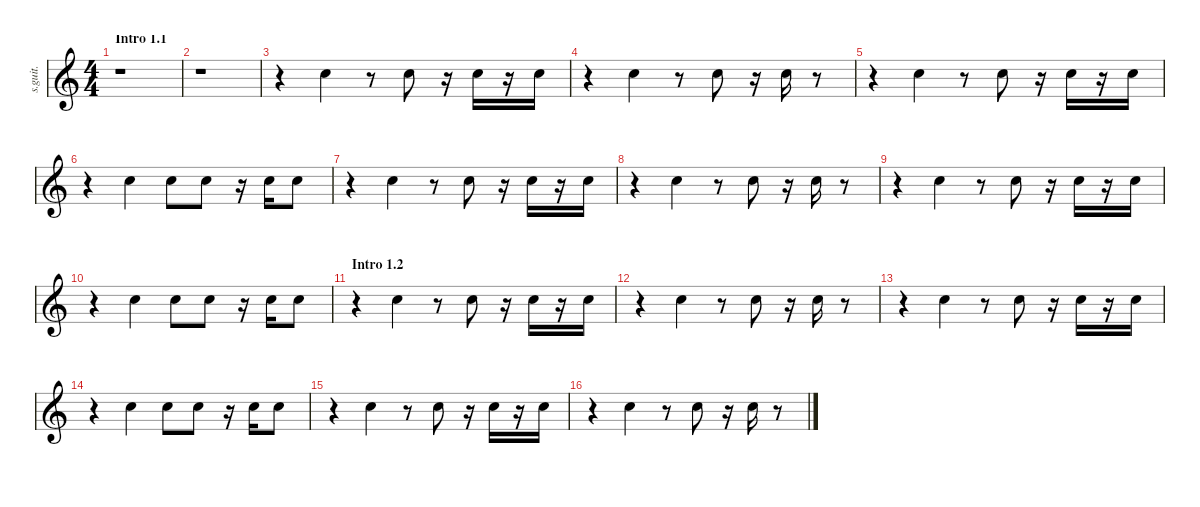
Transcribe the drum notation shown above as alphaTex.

\defaultSystemsLayout 4
\hideDynamics
\bracketExtendMode nobrackets
\track ("Hand Clap" "s.guit.") {instrument percussion}
\staff {score}
\articulation defaults
\ts (4 4)
\beaming (8 2 2 2 2)
\section ("" "Intro 1.1")
\tempo (192 hide)
\clef g2
\ks c
r.1{dy mf} |
r.1 |
r.4 "Hand Clap (hit)".4{lyrics (0 "") lyrics (1 "") lyrics (2 "") lyrics (3 "") lyrics (4 "")} r.8 "Hand Clap (hit)".8{lyrics (0 "") lyrics (1 "") lyrics (2 "") lyrics (3 "") lyrics (4 "")} r.16 "Hand Clap (hit)".16{lyrics (0 "") lyrics (1 "") lyrics (2 "") lyrics (3 "") lyrics (4 "")} r.16 "Hand Clap (hit)".16{lyrics (0 "") lyrics (1 "") lyrics (2 "") lyrics (3 "") lyrics (4 "")} |
r.4 "Hand Clap (hit)".4{lyrics (0 "") lyrics (1 "") lyrics (2 "") lyrics (3 "") lyrics (4 "")} r.8 "Hand Clap (hit)".8{lyrics (0 "") lyrics (1 "") lyrics (2 "") lyrics (3 "") lyrics (4 "")} r.16 "Hand Clap (hit)".16{lyrics (0 "") lyrics (1 "") lyrics (2 "") lyrics (3 "") lyrics (4 "")} r.8 |
r.4 "Hand Clap (hit)".4{lyrics (0 "") lyrics (1 "") lyrics (2 "") lyrics (3 "") lyrics (4 "")} r.8 "Hand Clap (hit)".8{lyrics (0 "") lyrics (1 "") lyrics (2 "") lyrics (3 "") lyrics (4 "")} r.16 "Hand Clap (hit)".16{lyrics (0 "") lyrics (1 "") lyrics (2 "") lyrics (3 "") lyrics (4 "")} r.16 "Hand Clap (hit)".16{lyrics (0 "") lyrics (1 "") lyrics (2 "") lyrics (3 "") lyrics (4 "")} |
r.4 "Hand Clap (hit)".4{lyrics (0 "") lyrics (1 "") lyrics (2 "") lyrics (3 "") lyrics (4 "")} "Hand Clap (hit)".8{lyrics (0 "") lyrics (1 "") lyrics (2 "") lyrics (3 "") lyrics (4 "")} "Hand Clap (hit)".8{lyrics (0 "") lyrics (1 "") lyrics (2 "") lyrics (3 "") lyrics (4 "")} r.16 "Hand Clap (hit)".16{lyrics (0 "") lyrics (1 "") lyrics (2 "") lyrics (3 "") lyrics (4 "")} "Hand Clap (hit)".8{lyrics (0 "") lyrics (1 "") lyrics (2 "") lyrics (3 "") lyrics (4 "")} |
r.4 "Hand Clap (hit)".4{lyrics (0 "") lyrics (1 "") lyrics (2 "") lyrics (3 "") lyrics (4 "")} r.8 "Hand Clap (hit)".8{lyrics (0 "") lyrics (1 "") lyrics (2 "") lyrics (3 "") lyrics (4 "")} r.16 "Hand Clap (hit)".16{lyrics (0 "") lyrics (1 "") lyrics (2 "") lyrics (3 "") lyrics (4 "")} r.16 "Hand Clap (hit)".16{lyrics (0 "") lyrics (1 "") lyrics (2 "") lyrics (3 "") lyrics (4 "")} |
r.4 "Hand Clap (hit)".4{lyrics (0 "") lyrics (1 "") lyrics (2 "") lyrics (3 "") lyrics (4 "")} r.8 "Hand Clap (hit)".8{lyrics (0 "") lyrics (1 "") lyrics (2 "") lyrics (3 "") lyrics (4 "")} r.16 "Hand Clap (hit)".16{lyrics (0 "") lyrics (1 "") lyrics (2 "") lyrics (3 "") lyrics (4 "")} r.8 |
r.4 "Hand Clap (hit)".4{lyrics (0 "") lyrics (1 "") lyrics (2 "") lyrics (3 "") lyrics (4 "")} r.8 "Hand Clap (hit)".8{lyrics (0 "") lyrics (1 "") lyrics (2 "") lyrics (3 "") lyrics (4 "")} r.16 "Hand Clap (hit)".16{lyrics (0 "") lyrics (1 "") lyrics (2 "") lyrics (3 "") lyrics (4 "")} r.16 "Hand Clap (hit)".16{lyrics (0 "") lyrics (1 "") lyrics (2 "") lyrics (3 "") lyrics (4 "")} |
r.4 "Hand Clap (hit)".4{lyrics (0 "") lyrics (1 "") lyrics (2 "") lyrics (3 "") lyrics (4 "")} "Hand Clap (hit)".8{lyrics (0 "") lyrics (1 "") lyrics (2 "") lyrics (3 "") lyrics (4 "")} "Hand Clap (hit)".8{lyrics (0 "") lyrics (1 "") lyrics (2 "") lyrics (3 "") lyrics (4 "")} r.16 "Hand Clap (hit)".16{lyrics (0 "") lyrics (1 "") lyrics (2 "") lyrics (3 "") lyrics (4 "")} "Hand Clap (hit)".8{lyrics (0 "") lyrics (1 "") lyrics (2 "") lyrics (3 "") lyrics (4 "")} |
\section ("" "Intro 1.2")
r.4 "Hand Clap (hit)".4{lyrics (0 "") lyrics (1 "") lyrics (2 "") lyrics (3 "") lyrics (4 "")} r.8 "Hand Clap (hit)".8{lyrics (0 "") lyrics (1 "") lyrics (2 "") lyrics (3 "") lyrics (4 "")} r.16 "Hand Clap (hit)".16{lyrics (0 "") lyrics (1 "") lyrics (2 "") lyrics (3 "") lyrics (4 "")} r.16 "Hand Clap (hit)".16{lyrics (0 "") lyrics (1 "") lyrics (2 "") lyrics (3 "") lyrics (4 "")} |
r.4 "Hand Clap (hit)".4{lyrics (0 "") lyrics (1 "") lyrics (2 "") lyrics (3 "") lyrics (4 "")} r.8 "Hand Clap (hit)".8{lyrics (0 "") lyrics (1 "") lyrics (2 "") lyrics (3 "") lyrics (4 "")} r.16 "Hand Clap (hit)".16{lyrics (0 "") lyrics (1 "") lyrics (2 "") lyrics (3 "") lyrics (4 "")} r.8 |
r.4 "Hand Clap (hit)".4{lyrics (0 "") lyrics (1 "") lyrics (2 "") lyrics (3 "") lyrics (4 "")} r.8 "Hand Clap (hit)".8{lyrics (0 "") lyrics (1 "") lyrics (2 "") lyrics (3 "") lyrics (4 "")} r.16 "Hand Clap (hit)".16{lyrics (0 "") lyrics (1 "") lyrics (2 "") lyrics (3 "") lyrics (4 "")} r.16 "Hand Clap (hit)".16{lyrics (0 "") lyrics (1 "") lyrics (2 "") lyrics (3 "") lyrics (4 "")} |
r.4 "Hand Clap (hit)".4{lyrics (0 "") lyrics (1 "") lyrics (2 "") lyrics (3 "") lyrics (4 "")} "Hand Clap (hit)".8{lyrics (0 "") lyrics (1 "") lyrics (2 "") lyrics (3 "") lyrics (4 "")} "Hand Clap (hit)".8{lyrics (0 "") lyrics (1 "") lyrics (2 "") lyrics (3 "") lyrics (4 "")} r.16 "Hand Clap (hit)".16{lyrics (0 "") lyrics (1 "") lyrics (2 "") lyrics (3 "") lyrics (4 "")} "Hand Clap (hit)".8{lyrics (0 "") lyrics (1 "") lyrics (2 "") lyrics (3 "") lyrics (4 "")} |
r.4 "Hand Clap (hit)".4{lyrics (0 "") lyrics (1 "") lyrics (2 "") lyrics (3 "") lyrics (4 "")} r.8 "Hand Clap (hit)".8{lyrics (0 "") lyrics (1 "") lyrics (2 "") lyrics (3 "") lyrics (4 "")} r.16 "Hand Clap (hit)".16{lyrics (0 "") lyrics (1 "") lyrics (2 "") lyrics (3 "") lyrics (4 "")} r.16 "Hand Clap (hit)".16{lyrics (0 "") lyrics (1 "") lyrics (2 "") lyrics (3 "") lyrics (4 "")} |
r.4 "Hand Clap (hit)".4{lyrics (0 "") lyrics (1 "") lyrics (2 "") lyrics (3 "") lyrics (4 "")} r.8 "Hand Clap (hit)".8{lyrics (0 "") lyrics (1 "") lyrics (2 "") lyrics (3 "") lyrics (4 "")} r.16 "Hand Clap (hit)".16{lyrics (0 "") lyrics (1 "") lyrics (2 "") lyrics (3 "") lyrics (4 "")} r.8
